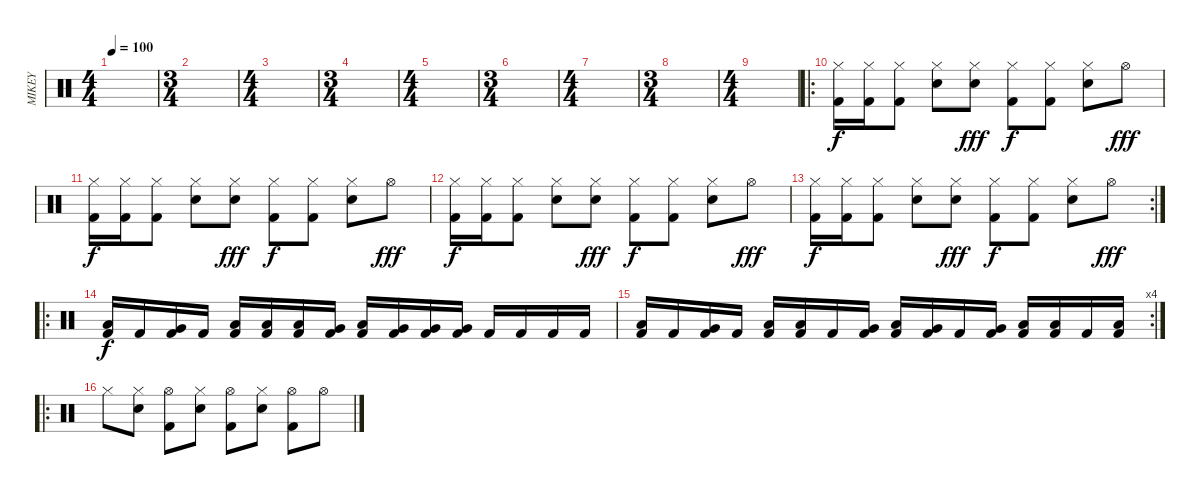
\track ("MIKEY" "MIKEY") {instrument percussion}
\staff {score}
\articulation defaults
\ts (4 4)
\tempo 100
\clef neutral
\ks c
|
\ts (3 4)
|
\ts (4 4)
|
\ts (3 4)
|
\ts (4 4)
|
\ts (3 4)
|
\ts (4 4)
|
\ts (3 4)
|
\ts (4 4)
|
\ro
("Kick (hit) 2" "Hi-Hat (closed)").16 ("Kick (hit) 2" "Hi-Hat (closed)").16 ("Kick (hit) 2" "Hi-Hat (closed)").8 ("Snare (hit) 2" "Hi-Hat (closed)").8 ("Snare (hit) 2" "Hi-Hat (closed)").8{dy fff} ("Kick (hit) 2" "Hi-Hat (closed)").8{dy f} ("Kick (hit) 2" "Hi-Hat (closed)").8 ("Snare (hit) 2" "Hi-Hat (closed)").8 "Hi-Hat (open)".8{dy fff} |
("Kick (hit) 2" "Hi-Hat (closed)").16{dy f} ("Kick (hit) 2" "Hi-Hat (closed)").16 ("Kick (hit) 2" "Hi-Hat (closed)").8 ("Snare (hit) 2" "Hi-Hat (closed)").8 ("Snare (hit) 2" "Hi-Hat (closed)").8{dy fff} ("Kick (hit) 2" "Hi-Hat (closed)").8{dy f} ("Kick (hit) 2" "Hi-Hat (closed)").8 ("Snare (hit) 2" "Hi-Hat (closed)").8 "Hi-Hat (open)".8{dy fff} |
("Kick (hit) 2" "Hi-Hat (closed)").16{dy f} ("Kick (hit) 2" "Hi-Hat (closed)").16 ("Kick (hit) 2" "Hi-Hat (closed)").8 ("Snare (hit) 2" "Hi-Hat (closed)").8 ("Snare (hit) 2" "Hi-Hat (closed)").8{dy fff} ("Kick (hit) 2" "Hi-Hat (closed)").8{dy f} ("Kick (hit) 2" "Hi-Hat (closed)").8 ("Snare (hit) 2" "Hi-Hat (closed)").8 "Hi-Hat (open)".8{dy fff} |
\rc 2
("Kick (hit) 2" "Hi-Hat (closed)").16{dy f} ("Kick (hit) 2" "Hi-Hat (closed)").16 ("Kick (hit) 2" "Hi-Hat (closed)").8 ("Snare (hit) 2" "Hi-Hat (closed)").8 ("Snare (hit) 2" "Hi-Hat (closed)").8{dy fff} ("Kick (hit) 2" "Hi-Hat (closed)").8{dy f} ("Kick (hit) 2" "Hi-Hat (closed)").8 ("Snare (hit) 2" "Hi-Hat (closed)").8 "Hi-Hat (open)".8{dy fff} |
\ro
("Low Tom (hit)" "Kick (hit) 2").16{dy f} "Kick (hit) 2".16 ("Very Low Tom (hit)" "Kick (hit) 2").16 "Kick (hit) 2".16 ("Low Tom (hit)" "Kick (hit) 2").16 ("Low Floor Tom (hit)" "Kick (hit) 2").16 ("Low Floor Tom (hit)" "Kick (hit) 2").16 ("Very Low Tom (hit)" "Kick (hit) 2").16 ("Low Tom (hit)" "Kick (hit) 2").16 ("Very Low Tom (hit)" "Kick (hit) 2").16 ("Very Low Tom (hit)" "Kick (hit) 2").16 ("Very Low Tom (hit)" "Kick (hit) 2").16 "Kick (hit) 2".16 "Kick (hit) 2".16 "Kick (hit) 2".16 "Kick (hit) 2".16 |
\rc 4
("Low Tom (hit)" "Kick (hit) 2").16 "Kick (hit) 2".16 ("Very Low Tom (hit)" "Kick (hit) 2").16 "Kick (hit) 2".16 ("Low Tom (hit)" "Kick (hit) 2").16 ("Low Floor Tom (hit)" "Kick (hit) 2").16 "Kick (hit) 2".16 ("Very Low Tom (hit)" "Kick (hit) 2").16 ("Low Tom (hit)" "Kick (hit) 2").16 ("Very Low Tom (hit)" "Kick (hit) 2").16 "Kick (hit) 2".16 ("Very Low Tom (hit)" "Kick (hit) 2").16 ("Low Floor Tom (hit)" "Kick (hit) 2").16 ("Low Floor Tom (hit)" "Kick (hit) 2").16 "Kick (hit) 2".16 ("Low Floor Tom (hit)" "Kick (hit) 2").16 |
\ro "Hi-Hat (closed)".8
("Electric Snare (hit)" "Hi-Hat (closed)").8 ("Kick (hit) 2" "Hi-Hat (open)").8 ("Electric Snare (hit)" "Hi-Hat (closed)").8 ("Kick (hit) 2" "Hi-Hat (open)").8 ("Electric Snare (hit)" "Hi-Hat (closed)").8 ("Kick (hit) 2" "Hi-Hat (open)").8 "Hi-Hat (open)".8
